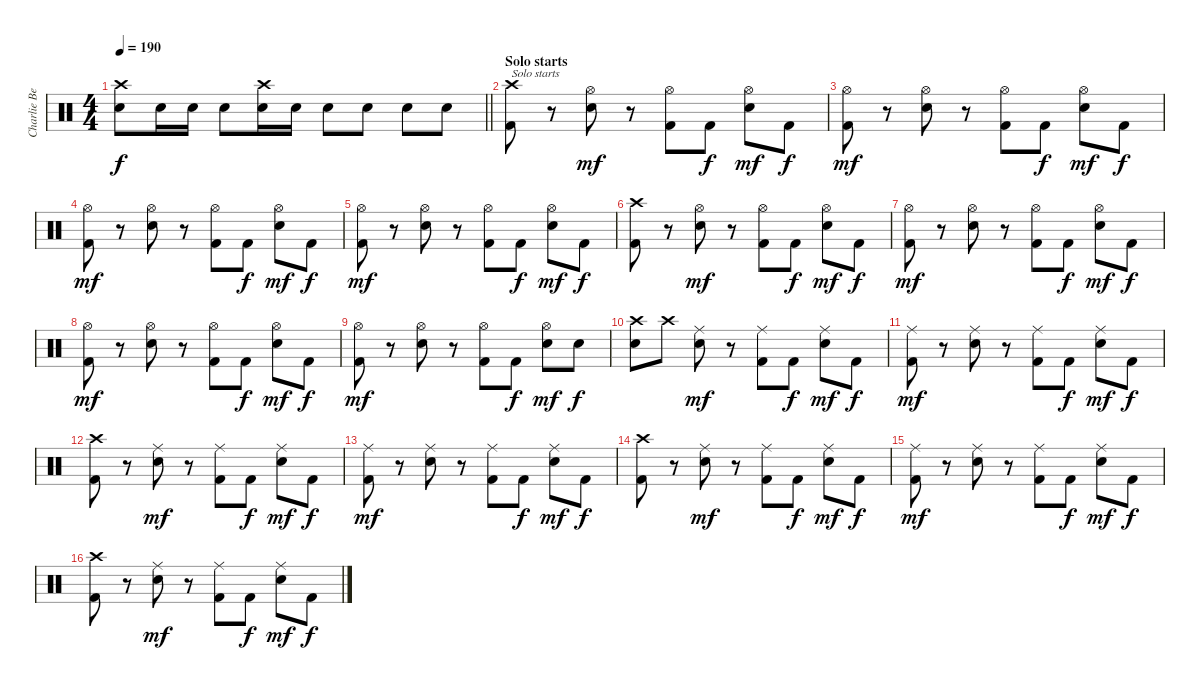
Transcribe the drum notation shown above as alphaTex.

\track ("Charlie Benante" "Charlie Be") {instrument percussion}
\staff {score}
\articulation defaults
\ts (4 4)
\tempo 190
\clef neutral
\barLineRight lightlight
\ks c
("Crash high (hit)" "Electric Snare (hit)").8{dy f} "Electric Snare (hit)".16 "Electric Snare (hit)".16 "Electric Snare (hit)".8 ("Crash high (hit)" "Electric Snare (hit)").16 "Electric Snare (hit)".16 "Electric Snare (hit)".8 "Electric Snare (hit)".8 "Electric Snare (hit)".8 "Electric Snare (hit)".8 |
\section ("" "Solo starts")
("Crash high (hit)" "Kick (hit) 2").8{txt "Solo starts"} r.8 ("Hi-Hat (open)" "Electric Snare (hit)").8{dy mf} r.8 ("Hi-Hat (open)" "Kick (hit) 2").8 "Kick (hit) 2".8{dy f} ("Hi-Hat (open)" "Electric Snare (hit)").8{dy mf} "Kick (hit) 2".8{dy f} |
("Hi-Hat (open)" "Kick (hit) 2").8{dy mf} r.8 ("Hi-Hat (open)" "Electric Snare (hit)").8 r.8 ("Hi-Hat (open)" "Kick (hit) 2").8 "Kick (hit) 2".8{dy f} ("Hi-Hat (open)" "Electric Snare (hit)").8{dy mf} "Kick (hit) 2".8{dy f} |
("Hi-Hat (open)" "Kick (hit) 2").8{dy mf} r.8 ("Hi-Hat (open)" "Electric Snare (hit)").8 r.8 ("Hi-Hat (open)" "Kick (hit) 2").8 "Kick (hit) 2".8{dy f} ("Hi-Hat (open)" "Electric Snare (hit)").8{dy mf} "Kick (hit) 2".8{dy f} |
("Hi-Hat (open)" "Kick (hit) 2").8{dy mf} r.8 ("Hi-Hat (open)" "Electric Snare (hit)").8 r.8 ("Hi-Hat (open)" "Kick (hit) 2").8 "Kick (hit) 2".8{dy f} ("Hi-Hat (open)" "Electric Snare (hit)").8{dy mf} "Kick (hit) 2".8{dy f} |
("Crash high (hit)" "Kick (hit) 2").8 r.8 ("Hi-Hat (open)" "Electric Snare (hit)").8{dy mf} r.8 ("Hi-Hat (open)" "Kick (hit) 2").8 "Kick (hit) 2".8{dy f} ("Hi-Hat (open)" "Electric Snare (hit)").8{dy mf} "Kick (hit) 2".8{dy f} |
("Hi-Hat (open)" "Kick (hit) 2").8{dy mf} r.8 ("Hi-Hat (open)" "Electric Snare (hit)").8 r.8 ("Hi-Hat (open)" "Kick (hit) 2").8 "Kick (hit) 2".8{dy f} ("Hi-Hat (open)" "Electric Snare (hit)").8{dy mf} "Kick (hit) 2".8{dy f} |
("Hi-Hat (open)" "Kick (hit) 2").8{dy mf} r.8 ("Hi-Hat (open)" "Electric Snare (hit)").8 r.8 ("Hi-Hat (open)" "Kick (hit) 2").8 "Kick (hit) 2".8{dy f} ("Hi-Hat (open)" "Electric Snare (hit)").8{dy mf} "Kick (hit) 2".8{dy f} |
("Hi-Hat (open)" "Kick (hit) 2").8{dy mf} r.8 ("Hi-Hat (open)" "Electric Snare (hit)").8 r.8 ("Hi-Hat (open)" "Kick (hit) 2").8 "Kick (hit) 2".8{dy f} ("Hi-Hat (open)" "Electric Snare (hit)").8{dy mf} "Electric Snare (hit)".8{dy f} |
("Crash high (hit)" "Electric Snare (hit)").8 "Crash high (hit)".8 ("Ride (middle)" "Electric Snare (hit)").8{dy mf} r.8 ("Ride (middle)" "Kick (hit) 2").8 "Kick (hit) 2".8{dy f} ("Ride (middle)" "Electric Snare (hit)").8{dy mf} "Kick (hit) 2".8{dy f} |
("Ride (middle)" "Kick (hit) 2").8{dy mf} r.8 ("Ride (middle)" "Electric Snare (hit)").8 r.8 ("Ride (middle)" "Kick (hit) 2").8 "Kick (hit) 2".8{dy f} ("Ride (middle)" "Electric Snare (hit)").8{dy mf} "Kick (hit) 2".8{dy f} |
("Crash high (hit)" "Kick (hit) 2").8 r.8 ("Ride (middle)" "Electric Snare (hit)").8{dy mf} r.8 ("Ride (middle)" "Kick (hit) 2").8 "Kick (hit) 2".8{dy f} ("Ride (middle)" "Electric Snare (hit)").8{dy mf} "Kick (hit) 2".8{dy f} |
("Ride (middle)" "Kick (hit) 2").8{dy mf} r.8 ("Ride (middle)" "Electric Snare (hit)").8 r.8 ("Ride (middle)" "Kick (hit) 2").8 "Kick (hit) 2".8{dy f} ("Ride (middle)" "Electric Snare (hit)").8{dy mf} "Kick (hit) 2".8{dy f} |
("Crash high (hit)" "Kick (hit) 2").8 r.8 ("Ride (middle)" "Electric Snare (hit)").8{dy mf} r.8 ("Ride (middle)" "Kick (hit) 2").8 "Kick (hit) 2".8{dy f} ("Ride (middle)" "Electric Snare (hit)").8{dy mf} "Kick (hit) 2".8{dy f} |
("Ride (middle)" "Kick (hit) 2").8{dy mf} r.8 ("Ride (middle)" "Electric Snare (hit)").8 r.8 ("Ride (middle)" "Kick (hit) 2").8 "Kick (hit) 2".8{dy f} ("Ride (middle)" "Electric Snare (hit)").8{dy mf} "Kick (hit) 2".8{dy f} |
("Crash high (hit)" "Kick (hit) 2").8 r.8 ("Ride (middle)" "Electric Snare (hit)").8{dy mf} r.8 ("Ride (middle)" "Kick (hit) 2").8 "Kick (hit) 2".8{dy f} ("Ride (middle)" "Electric Snare (hit)").8{dy mf} "Kick (hit) 2".8{dy f}
